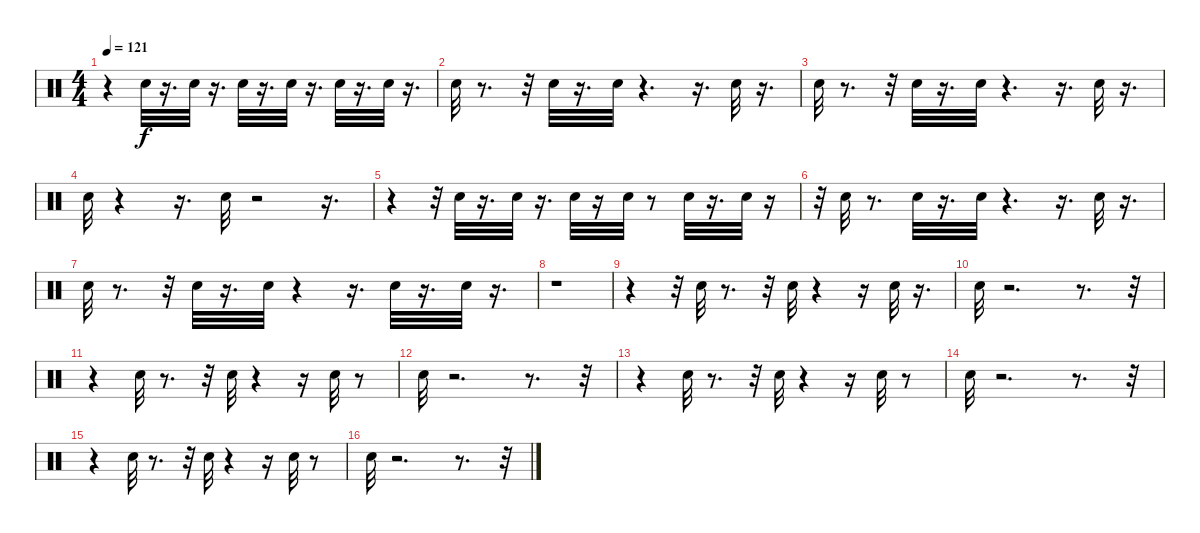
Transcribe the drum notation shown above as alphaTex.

\track "" {instrument percussion}
\staff {score}
\articulation defaults
\ts (4 4)
\tempo 121
\clef neutral
\ks c
r.4{dy f} "Snare (hit)".32 r.16{d} "Snare (hit)".32 r.16{d} "Snare (hit)".32 r.16{d} "Snare (hit)".32 r.16{d} "Snare (hit)".32 r.16{d} "Snare (hit)".32 r.16{d} |
"Snare (hit)".32 r.8{d} r.32 "Snare (hit)".32 r.16{d} "Snare (hit)".32 r.4{d} r.16{d} "Snare (hit)".32 r.16{d} |
"Snare (hit)".32 r.8{d} r.32 "Snare (hit)".32 r.16{d} "Snare (hit)".32 r.4{d} r.16{d} "Snare (hit)".32 r.16{d} |
"Snare (hit)".32 r.4 r.16{d} "Snare (hit)".32 r.2 r.16{d} |
r.4 r.32 "Snare (hit)".32 r.16{d} "Snare (hit)".32 r.16{d} "Snare (hit)".32 r.16 "Snare (hit)".32 r.8 "Snare (hit)".32 r.16{d} "Snare (hit)".32 r.16 |
r.32 "Snare (hit)".32 r.8{d} "Snare (hit)".32 r.16{d} "Snare (hit)".32 r.4{d} r.16{d} "Snare (hit)".32 r.16{d} |
"Snare (hit)".32 r.8{d} r.32 "Snare (hit)".32 r.16{d} "Snare (hit)".32 r.4 r.16{d} "Snare (hit)".32 r.16{d} "Snare (hit)".32 r.16{d} |
r.1 |
r.4 r.32 "Snare (hit)".32 r.8{d} r.32 "Snare (hit)".32 r.4 r.16 "Snare (hit)".32 r.16{d} |
"Snare (hit)".32 r.2{d} r.8{d} r.32 |
r.4 "Snare (hit)".32 r.8{d} r.32 "Snare (hit)".32 r.4 r.16 "Snare (hit)".32 r.8 |
"Snare (hit)".32 r.2{d} r.8{d} r.32 |
r.4 "Snare (hit)".32 r.8{d} r.32 "Snare (hit)".32 r.4 r.16 "Snare (hit)".32 r.8 |
"Snare (hit)".32 r.2{d} r.8{d} r.32 |
r.4 "Snare (hit)".32 r.8{d} r.32 "Snare (hit)".32 r.4 r.16 "Snare (hit)".32 r.8 |
"Snare (hit)".32 r.2{d} r.8{d} r.32
